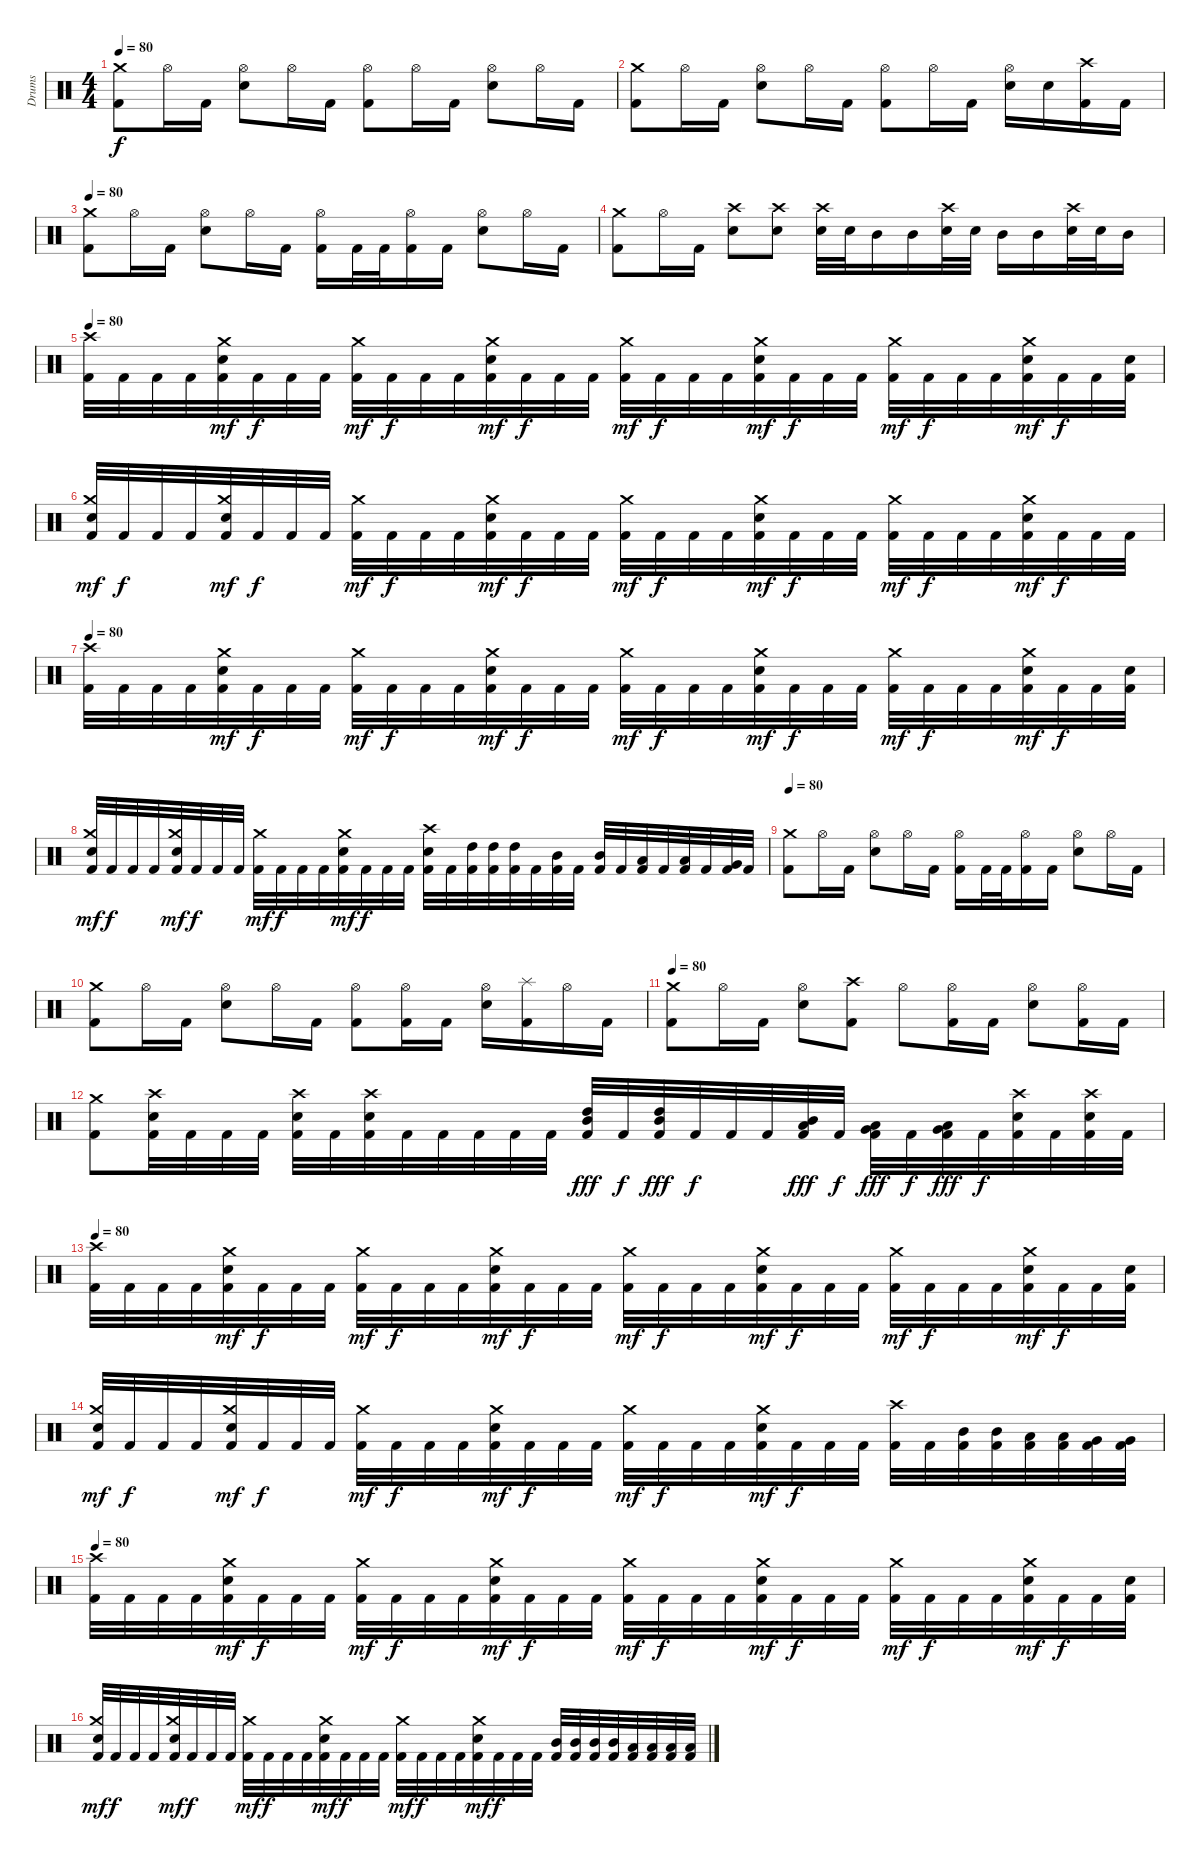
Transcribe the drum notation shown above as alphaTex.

\track ("Drums" "Drums") {instrument percussion}
\staff {score}
\articulation defaults
\ts (4 4)
\tempo 80
\clef neutral
\ks c
("Kick (hit) 2" "Crash medium (hit)").8{dy f} "Hi-Hat (open)".16 "Kick (hit) 2".16 ("Electric Snare (hit)" "Hi-Hat (open)").8 "Hi-Hat (open)".16 "Kick (hit) 2".16 ("Kick (hit) 2" "Hi-Hat (open)").8 "Hi-Hat (open)".16 "Kick (hit) 2".16 ("Electric Snare (hit)" "Hi-Hat (open)").8 "Hi-Hat (open)".16 "Kick (hit) 2".16 |
("Kick (hit) 2" "Crash medium (hit)").8 "Hi-Hat (open)".16 "Kick (hit) 2".16 ("Electric Snare (hit)" "Hi-Hat (open)").8 "Hi-Hat (open)".16 "Kick (hit) 2".16 ("Kick (hit) 2" "Hi-Hat (open)").8 "Hi-Hat (open)".16 "Kick (hit) 2".16 ("Electric Snare (hit)" "Hi-Hat (open)").16 "Electric Snare (hit)".16 ("Kick (hit) 2" "Crash high (hit)").16 "Kick (hit) 2".16 |
\tempo 80
("Kick (hit) 2" "Crash medium (hit)").8 "Hi-Hat (open)".16 "Kick (hit) 2".16 ("Electric Snare (hit)" "Hi-Hat (open)").8 "Hi-Hat (open)".16 "Kick (hit) 2".16 ("Kick (hit) 2" "Hi-Hat (open)").16 "Kick (hit) 2".32 "Kick (hit) 2".32 ("Kick (hit) 2" "Hi-Hat (open)").16 "Kick (hit) 2".16 ("Electric Snare (hit)" "Hi-Hat (open)").8 "Hi-Hat (open)".16 "Kick (hit) 2".16 |
("Kick (hit) 2" "Crash medium (hit)").8 "Hi-Hat (open)".16 "Kick (hit) 2".16 ("Electric Snare (hit)" "Crash high (hit)").8 ("Electric Snare (hit)" "Crash high (hit)").8 ("Electric Snare (hit)" "Crash high (hit)").32 "Electric Snare (hit)".32 "Mid Tom (hit)".16 "Mid Tom (hit)".16 ("Electric Snare (hit)" "Crash high (hit)").32 "Electric Snare (hit)".32 "Mid Tom (hit)".16 "Mid Tom (hit)".16 ("Electric Snare (hit)" "Crash high (hit)").32 "Electric Snare (hit)".32 "Mid Tom (hit)".16 |
\tempo 80
("Kick (hit) 2" "Crash high (hit)").32 "Kick (hit) 2".32 "Kick (hit) 2".32 "Kick (hit) 2".32 ("Kick (hit) 2" "Electric Snare (hit)" "Crash medium (hit)").32{dy mf} "Kick (hit) 2".32{dy f} "Kick (hit) 2".32 "Kick (hit) 2".32 ("Kick (hit) 2" "Crash medium (hit)").32{dy mf} "Kick (hit) 2".32{dy f} "Kick (hit) 2".32 "Kick (hit) 2".32 ("Kick (hit) 2" "Electric Snare (hit)" "Crash medium (hit)").32{dy mf} "Kick (hit) 2".32{dy f} "Kick (hit) 2".32 "Kick (hit) 2".32 ("Kick (hit) 2" "Crash medium (hit)").32{dy mf} "Kick (hit) 2".32{dy f} "Kick (hit) 2".32 "Kick (hit) 2".32 ("Kick (hit) 2" "Electric Snare (hit)" "Crash medium (hit)").32{dy mf} "Kick (hit) 2".32{dy f} "Kick (hit) 2".32 "Kick (hit) 2".32 ("Kick (hit) 2" "Crash medium (hit)").32{dy mf} "Kick (hit) 2".32{dy f} "Kick (hit) 2".32 "Kick (hit) 2".32 ("Kick (hit) 2" "Electric Snare (hit)" "Crash medium (hit)").32{dy mf} "Kick (hit) 2".32{dy f} "Kick (hit) 2".32 ("Kick (hit) 2" "Electric Snare (hit)").32 |
("Kick (hit) 2" "Electric Snare (hit)" "Crash medium (hit)").32{dy mf} "Kick (hit) 2".32{dy f} "Kick (hit) 2".32 "Kick (hit) 2".32 ("Kick (hit) 2" "Electric Snare (hit)" "Crash medium (hit)").32{dy mf} "Kick (hit) 2".32{dy f} "Kick (hit) 2".32 "Kick (hit) 2".32 ("Kick (hit) 2" "Crash medium (hit)").32{dy mf} "Kick (hit) 2".32{dy f} "Kick (hit) 2".32 "Kick (hit) 2".32 ("Kick (hit) 2" "Electric Snare (hit)" "Crash medium (hit)").32{dy mf} "Kick (hit) 2".32{dy f} "Kick (hit) 2".32 "Kick (hit) 2".32 ("Kick (hit) 2" "Crash medium (hit)").32{dy mf} "Kick (hit) 2".32{dy f} "Kick (hit) 2".32 "Kick (hit) 2".32 ("Kick (hit) 2" "Electric Snare (hit)" "Crash medium (hit)").32{dy mf} "Kick (hit) 2".32{dy f} "Kick (hit) 2".32 "Kick (hit) 2".32 ("Kick (hit) 2" "Crash medium (hit)").32{dy mf} "Kick (hit) 2".32{dy f} "Kick (hit) 2".32 "Kick (hit) 2".32 ("Kick (hit) 2" "Electric Snare (hit)" "Crash medium (hit)").32{dy mf} "Kick (hit) 2".32{dy f} "Kick (hit) 2".32 "Kick (hit) 2".32 |
\tempo 80
("Kick (hit) 2" "Crash high (hit)").32 "Kick (hit) 2".32 "Kick (hit) 2".32 "Kick (hit) 2".32 ("Kick (hit) 2" "Electric Snare (hit)" "Crash medium (hit)").32{dy mf} "Kick (hit) 2".32{dy f} "Kick (hit) 2".32 "Kick (hit) 2".32 ("Kick (hit) 2" "Crash medium (hit)").32{dy mf} "Kick (hit) 2".32{dy f} "Kick (hit) 2".32 "Kick (hit) 2".32 ("Kick (hit) 2" "Electric Snare (hit)" "Crash medium (hit)").32{dy mf} "Kick (hit) 2".32{dy f} "Kick (hit) 2".32 "Kick (hit) 2".32 ("Kick (hit) 2" "Crash medium (hit)").32{dy mf} "Kick (hit) 2".32{dy f} "Kick (hit) 2".32 "Kick (hit) 2".32 ("Kick (hit) 2" "Electric Snare (hit)" "Crash medium (hit)").32{dy mf} "Kick (hit) 2".32{dy f} "Kick (hit) 2".32 "Kick (hit) 2".32 ("Kick (hit) 2" "Crash medium (hit)").32{dy mf} "Kick (hit) 2".32{dy f} "Kick (hit) 2".32 "Kick (hit) 2".32 ("Kick (hit) 2" "Electric Snare (hit)" "Crash medium (hit)").32{dy mf} "Kick (hit) 2".32{dy f} "Kick (hit) 2".32 ("Kick (hit) 2" "Electric Snare (hit)").32 |
("Kick (hit) 2" "Electric Snare (hit)" "Crash medium (hit)").32{dy mf} "Kick (hit) 2".32{dy f} "Kick (hit) 2".32 "Kick (hit) 2".32 ("Kick (hit) 2" "Electric Snare (hit)" "Crash medium (hit)").32{dy mf} "Kick (hit) 2".32{dy f} "Kick (hit) 2".32 "Kick (hit) 2".32 ("Kick (hit) 2" "Crash medium (hit)").32{dy mf} "Kick (hit) 2".32{dy f} "Kick (hit) 2".32 "Kick (hit) 2".32 ("Kick (hit) 2" "Electric Snare (hit)" "Crash medium (hit)").32{dy mf} "Kick (hit) 2".32{dy f} "Kick (hit) 2".32 "Kick (hit) 2".32 ("Kick (hit) 2" "Electric Snare (hit)" "Crash high (hit)").32 "Kick (hit) 2".32 ("Kick (hit) 2" "High Tom (hit)").32 ("Kick (hit) 2" "High Tom (hit)").32 ("Kick (hit) 2" "High Tom (hit)").32 "Kick (hit) 2".32 ("Kick (hit) 2" "Mid Tom (hit)").32 "Kick (hit) 2".32 ("Kick (hit) 2" "Mid Tom (hit)").32 "Kick (hit) 2".32 ("Kick (hit) 2" "Low Tom (hit)").32 "Kick (hit) 2".32 ("Kick (hit) 2" "Low Tom (hit)").32 "Kick (hit) 2".32 ("Kick (hit) 2" "Very Low Tom (hit)").32 "Kick (hit) 2".32 |
\tempo 80
("Kick (hit) 2" "Crash medium (hit)").8 "Hi-Hat (open)".16 "Kick (hit) 2".16 ("Electric Snare (hit)" "Hi-Hat (open)").8 "Hi-Hat (open)".16 "Kick (hit) 2".16 ("Kick (hit) 2" "Hi-Hat (open)").16 "Kick (hit) 2".32 "Kick (hit) 2".32 ("Kick (hit) 2" "Hi-Hat (open)").16 "Kick (hit) 2".16 ("Electric Snare (hit)" "Hi-Hat (open)").8 "Hi-Hat (open)".16 "Kick (hit) 2".16 |
("Kick (hit) 2" "Crash medium (hit)").8 "Hi-Hat (open)".16 "Kick (hit) 2".16 ("Electric Snare (hit)" "Hi-Hat (open)").8 "Hi-Hat (open)".16 "Kick (hit) 2".16 ("Kick (hit) 2" "Hi-Hat (open)").8 ("Kick (hit) 2" "Hi-Hat (open)").16 "Kick (hit) 2".16 ("Electric Snare (hit)" "Hi-Hat (open)").16 ("Kick (hit) 2" "Splash (hit)").16 "Hi-Hat (open)".16 "Kick (hit) 2".16 |
\tempo 80
("Kick (hit) 2" "Crash medium (hit)").8 "Hi-Hat (open)".16 "Kick (hit) 2".16 ("Electric Snare (hit)" "Hi-Hat (open)").8 ("Kick (hit) 2" "Crash high (hit)").8 "Hi-Hat (open)".8 ("Kick (hit) 2" "Hi-Hat (open)").16 "Kick (hit) 2".16 ("Electric Snare (hit)" "Hi-Hat (open)").8 ("Kick (hit) 2" "Hi-Hat (open)").16 "Kick (hit) 2".16 |
("Kick (hit) 2" "Crash medium (hit)").8 ("Kick (hit) 2" "Electric Snare (hit)" "Crash high (hit)").32 "Kick (hit) 2".32 "Kick (hit) 2".32 "Kick (hit) 2".32 ("Kick (hit) 2" "Electric Snare (hit)" "Crash high (hit)").32 "Kick (hit) 2".32 ("Kick (hit) 2" "Electric Snare (hit)" "Crash high (hit)").32 "Kick (hit) 2".32 "Kick (hit) 2".32 "Kick (hit) 2".32 "Kick (hit) 2".32 "Kick (hit) 2".32 ("Kick (hit) 2" "Mid Tom (hit)" "High Tom (hit)").32{dy fff} "Kick (hit) 2".32{dy f} ("Kick (hit) 2" "Mid Tom (hit)" "High Tom (hit)").32{dy fff} "Kick (hit) 2".32{dy f} "Kick (hit) 2".32 "Kick (hit) 2".32 ("Kick (hit) 2" "Low Tom (hit)" "Mid Tom (hit)").32{dy fff} "Kick (hit) 2".32{dy f} ("Kick (hit) 2" "Very Low Tom (hit)" "Low Tom (hit)").32{dy fff} "Kick (hit) 2".32{dy f} ("Kick (hit) 2" "Very Low Tom (hit)" "Low Tom (hit)").32{dy fff} "Kick (hit) 2".32{dy f} ("Kick (hit) 2" "Electric Snare (hit)" "Crash high (hit)").32 "Kick (hit) 2".32 ("Kick (hit) 2" "Electric Snare (hit)" "Crash high (hit)").32 "Kick (hit) 2".32 |
\tempo 80
("Kick (hit) 2" "Crash high (hit)").32 "Kick (hit) 2".32 "Kick (hit) 2".32 "Kick (hit) 2".32 ("Kick (hit) 2" "Electric Snare (hit)" "Crash medium (hit)").32{dy mf} "Kick (hit) 2".32{dy f} "Kick (hit) 2".32 "Kick (hit) 2".32 ("Kick (hit) 2" "Crash medium (hit)").32{dy mf} "Kick (hit) 2".32{dy f} "Kick (hit) 2".32 "Kick (hit) 2".32 ("Kick (hit) 2" "Electric Snare (hit)" "Crash medium (hit)").32{dy mf} "Kick (hit) 2".32{dy f} "Kick (hit) 2".32 "Kick (hit) 2".32 ("Kick (hit) 2" "Crash medium (hit)").32{dy mf} "Kick (hit) 2".32{dy f} "Kick (hit) 2".32 "Kick (hit) 2".32 ("Kick (hit) 2" "Electric Snare (hit)" "Crash medium (hit)").32{dy mf} "Kick (hit) 2".32{dy f} "Kick (hit) 2".32 "Kick (hit) 2".32 ("Kick (hit) 2" "Crash medium (hit)").32{dy mf} "Kick (hit) 2".32{dy f} "Kick (hit) 2".32 "Kick (hit) 2".32 ("Kick (hit) 2" "Electric Snare (hit)" "Crash medium (hit)").32{dy mf} "Kick (hit) 2".32{dy f} "Kick (hit) 2".32 ("Kick (hit) 2" "Electric Snare (hit)").32 |
("Kick (hit) 2" "Electric Snare (hit)" "Crash medium (hit)").32{dy mf} "Kick (hit) 2".32{dy f} "Kick (hit) 2".32 "Kick (hit) 2".32 ("Kick (hit) 2" "Electric Snare (hit)" "Crash medium (hit)").32{dy mf} "Kick (hit) 2".32{dy f} "Kick (hit) 2".32 "Kick (hit) 2".32 ("Kick (hit) 2" "Crash medium (hit)").32{dy mf} "Kick (hit) 2".32{dy f} "Kick (hit) 2".32 "Kick (hit) 2".32 ("Kick (hit) 2" "Electric Snare (hit)" "Crash medium (hit)").32{dy mf} "Kick (hit) 2".32{dy f} "Kick (hit) 2".32 "Kick (hit) 2".32 ("Kick (hit) 2" "Crash medium (hit)").32{dy mf} "Kick (hit) 2".32{dy f} "Kick (hit) 2".32 "Kick (hit) 2".32 ("Kick (hit) 2" "Electric Snare (hit)" "Crash medium (hit)").32{dy mf} "Kick (hit) 2".32{dy f} "Kick (hit) 2".32 "Kick (hit) 2".32 ("Kick (hit) 2" "Crash high (hit)").32 "Kick (hit) 2".32 ("Kick (hit) 2" "Mid Tom (hit)").32 ("Kick (hit) 2" "Mid Tom (hit)").32 ("Kick (hit) 2" "Low Tom (hit)").32 ("Kick (hit) 2" "Low Tom (hit)").32 ("Kick (hit) 2" "Very Low Tom (hit)").32 ("Kick (hit) 2" "Very Low Tom (hit)").32 |
\tempo 80
("Kick (hit) 2" "Crash high (hit)").32 "Kick (hit) 2".32 "Kick (hit) 2".32 "Kick (hit) 2".32 ("Kick (hit) 2" "Electric Snare (hit)" "Crash medium (hit)").32{dy mf} "Kick (hit) 2".32{dy f} "Kick (hit) 2".32 "Kick (hit) 2".32 ("Kick (hit) 2" "Crash medium (hit)").32{dy mf} "Kick (hit) 2".32{dy f} "Kick (hit) 2".32 "Kick (hit) 2".32 ("Kick (hit) 2" "Electric Snare (hit)" "Crash medium (hit)").32{dy mf} "Kick (hit) 2".32{dy f} "Kick (hit) 2".32 "Kick (hit) 2".32 ("Kick (hit) 2" "Crash medium (hit)").32{dy mf} "Kick (hit) 2".32{dy f} "Kick (hit) 2".32 "Kick (hit) 2".32 ("Kick (hit) 2" "Electric Snare (hit)" "Crash medium (hit)").32{dy mf} "Kick (hit) 2".32{dy f} "Kick (hit) 2".32 "Kick (hit) 2".32 ("Kick (hit) 2" "Crash medium (hit)").32{dy mf} "Kick (hit) 2".32{dy f} "Kick (hit) 2".32 "Kick (hit) 2".32 ("Kick (hit) 2" "Electric Snare (hit)" "Crash medium (hit)").32{dy mf} "Kick (hit) 2".32{dy f} "Kick (hit) 2".32 ("Kick (hit) 2" "Electric Snare (hit)").32 |
("Kick (hit) 2" "Electric Snare (hit)" "Crash medium (hit)").32{dy mf} "Kick (hit) 2".32{dy f} "Kick (hit) 2".32 "Kick (hit) 2".32 ("Kick (hit) 2" "Electric Snare (hit)" "Crash medium (hit)").32{dy mf} "Kick (hit) 2".32{dy f} "Kick (hit) 2".32 "Kick (hit) 2".32 ("Kick (hit) 2" "Crash medium (hit)").32{dy mf} "Kick (hit) 2".32{dy f} "Kick (hit) 2".32 "Kick (hit) 2".32 ("Kick (hit) 2" "Electric Snare (hit)" "Crash medium (hit)").32{dy mf} "Kick (hit) 2".32{dy f} "Kick (hit) 2".32 "Kick (hit) 2".32 ("Kick (hit) 2" "Crash medium (hit)").32{dy mf} "Kick (hit) 2".32{dy f} "Kick (hit) 2".32 "Kick (hit) 2".32 ("Kick (hit) 2" "Electric Snare (hit)" "Crash medium (hit)").32{dy mf} "Kick (hit) 2".32{dy f} "Kick (hit) 2".32 "Kick (hit) 2".32 ("Kick (hit) 2" "Mid Tom (hit)").32 ("Kick (hit) 2" "Mid Tom (hit)").32 ("Kick (hit) 2" "Mid Tom (hit)").32 ("Kick (hit) 2" "Mid Tom (hit)").32 ("Kick (hit) 2" "Low Tom (hit)").32 ("Kick (hit) 2" "Low Tom (hit)").32 ("Kick (hit) 2" "Low Tom (hit)").32 ("Kick (hit) 2" "Low Tom (hit)").32
